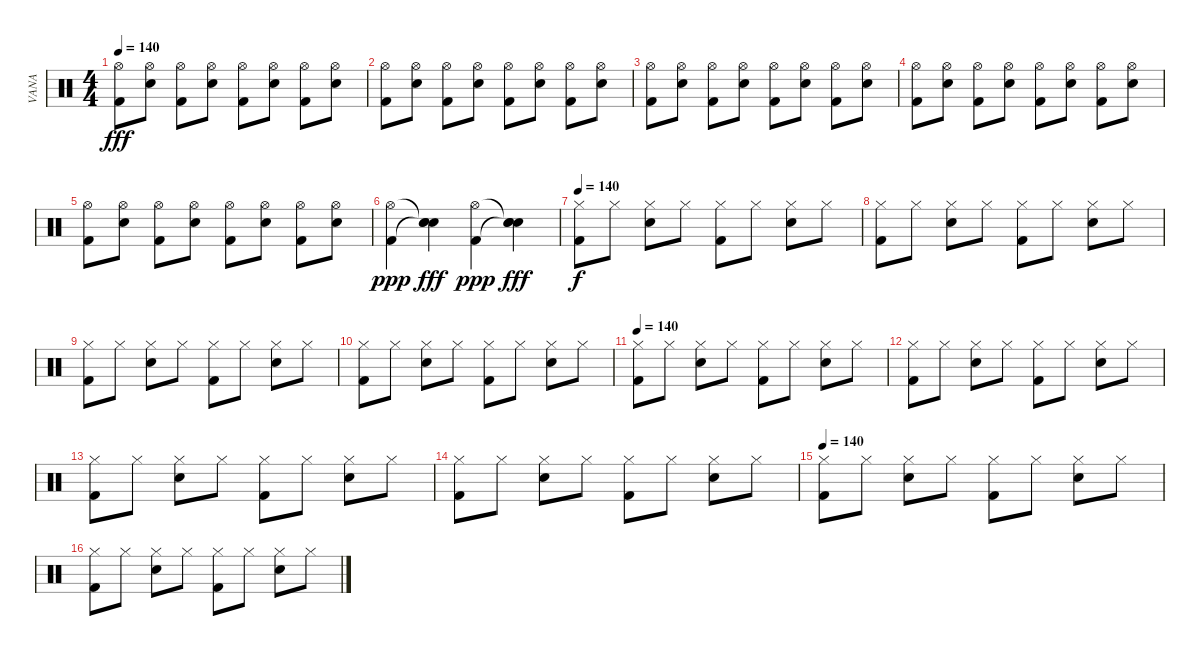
\track ("VANA" "VANA") {instrument percussion}
\staff {score}
\articulation defaults
\ts (4 4)
\tempo 140
\clef neutral
\ks c
("Hi-Hat (open)" "Kick (hit) 2").8{dy fff} ("Hi-Hat (open)" "Electric Snare (hit)").8 ("Hi-Hat (open)" "Kick (hit) 2").8 ("Hi-Hat (open)" "Electric Snare (hit)").8 ("Hi-Hat (open)" "Kick (hit) 2").8 ("Hi-Hat (open)" "Electric Snare (hit)").8 ("Hi-Hat (open)" "Kick (hit) 2").8 ("Hi-Hat (open)" "Electric Snare (hit)").8 |
("Hi-Hat (open)" "Kick (hit) 2").8 ("Hi-Hat (open)" "Electric Snare (hit)").8 ("Hi-Hat (open)" "Kick (hit) 2").8 ("Hi-Hat (open)" "Electric Snare (hit)").8 ("Hi-Hat (open)" "Kick (hit) 2").8 ("Hi-Hat (open)" "Electric Snare (hit)").8 ("Hi-Hat (open)" "Kick (hit) 2").8 ("Hi-Hat (open)" "Electric Snare (hit)").8 |
("Hi-Hat (open)" "Kick (hit) 2").8 ("Hi-Hat (open)" "Electric Snare (hit)").8 ("Hi-Hat (open)" "Kick (hit) 2").8 ("Hi-Hat (open)" "Electric Snare (hit)").8 ("Hi-Hat (open)" "Kick (hit) 2").8 ("Hi-Hat (open)" "Electric Snare (hit)").8 ("Hi-Hat (open)" "Kick (hit) 2").8 ("Hi-Hat (open)" "Electric Snare (hit)").8 |
("Hi-Hat (open)" "Kick (hit) 2").8 ("Hi-Hat (open)" "Electric Snare (hit)").8 ("Hi-Hat (open)" "Kick (hit) 2").8 ("Hi-Hat (open)" "Electric Snare (hit)").8 ("Hi-Hat (open)" "Kick (hit) 2").8 ("Hi-Hat (open)" "Electric Snare (hit)").8 ("Hi-Hat (open)" "Kick (hit) 2").8 ("Hi-Hat (open)" "Electric Snare (hit)").8 |
("Hi-Hat (open)" "Kick (hit) 2").8 ("Hi-Hat (open)" "Electric Snare (hit)").8 ("Hi-Hat (open)" "Kick (hit) 2").8 ("Hi-Hat (open)" "Electric Snare (hit)").8 ("Hi-Hat (open)" "Kick (hit) 2").8 ("Hi-Hat (open)" "Electric Snare (hit)").8 ("Hi-Hat (open)" "Kick (hit) 2").8 ("Hi-Hat (open)" "Electric Snare (hit)").8 |
("Hi-Hat (open)" "Kick (hit) 2").4{dy ppp} ("Electric Snare (hit)"{t} "Electric Snare (hit)"{t} "Electric Snare (hit)").4{dy fff} ("Hi-Hat (open)" "Kick (hit) 2").4{dy ppp} ("Electric Snare (hit)"{t} "Electric Snare (hit)"{t} "Electric Snare (hit)").4{dy fff} |
\tempo 140
("Hi-Hat (closed)" "Kick (hit) 2").8{dy f} "Hi-Hat (closed)".8 ("Hi-Hat (closed)" "Electric Snare (hit)").8 "Hi-Hat (closed)".8 ("Hi-Hat (closed)" "Kick (hit) 2").8 "Hi-Hat (closed)".8 ("Hi-Hat (closed)" "Electric Snare (hit)").8 "Hi-Hat (closed)".8 |
("Hi-Hat (closed)" "Kick (hit) 2").8 "Hi-Hat (closed)".8 ("Hi-Hat (closed)" "Electric Snare (hit)").8 "Hi-Hat (closed)".8 ("Hi-Hat (closed)" "Kick (hit) 2").8 "Hi-Hat (closed)".8 ("Hi-Hat (closed)" "Electric Snare (hit)").8 "Hi-Hat (closed)".8 |
("Hi-Hat (closed)" "Kick (hit) 2").8 "Hi-Hat (closed)".8 ("Hi-Hat (closed)" "Electric Snare (hit)").8 "Hi-Hat (closed)".8 ("Hi-Hat (closed)" "Kick (hit) 2").8 "Hi-Hat (closed)".8 ("Hi-Hat (closed)" "Electric Snare (hit)").8 "Hi-Hat (closed)".8 |
("Hi-Hat (closed)" "Kick (hit) 2").8 "Hi-Hat (closed)".8 ("Hi-Hat (closed)" "Electric Snare (hit)").8 "Hi-Hat (closed)".8 ("Hi-Hat (closed)" "Kick (hit) 2").8 "Hi-Hat (closed)".8 ("Hi-Hat (closed)" "Electric Snare (hit)").8 "Hi-Hat (closed)".8 |
\tempo 140
("Hi-Hat (closed)" "Kick (hit) 2").8 "Hi-Hat (closed)".8 ("Hi-Hat (closed)" "Electric Snare (hit)").8 "Hi-Hat (closed)".8 ("Hi-Hat (closed)" "Kick (hit) 2").8 "Hi-Hat (closed)".8 ("Hi-Hat (closed)" "Electric Snare (hit)").8 "Hi-Hat (closed)".8 |
("Hi-Hat (closed)" "Kick (hit) 2").8 "Hi-Hat (closed)".8 ("Hi-Hat (closed)" "Electric Snare (hit)").8 "Hi-Hat (closed)".8 ("Hi-Hat (closed)" "Kick (hit) 2").8 "Hi-Hat (closed)".8 ("Hi-Hat (closed)" "Electric Snare (hit)").8 "Hi-Hat (closed)".8 |
("Hi-Hat (closed)" "Kick (hit) 2").8 "Hi-Hat (closed)".8 ("Hi-Hat (closed)" "Electric Snare (hit)").8 "Hi-Hat (closed)".8 ("Hi-Hat (closed)" "Kick (hit) 2").8 "Hi-Hat (closed)".8 ("Hi-Hat (closed)" "Electric Snare (hit)").8 "Hi-Hat (closed)".8 |
("Hi-Hat (closed)" "Kick (hit) 2").8 "Hi-Hat (closed)".8 ("Hi-Hat (closed)" "Electric Snare (hit)").8 "Hi-Hat (closed)".8 ("Hi-Hat (closed)" "Kick (hit) 2").8 "Hi-Hat (closed)".8 ("Hi-Hat (closed)" "Electric Snare (hit)").8 "Hi-Hat (closed)".8 |
\tempo 140
("Hi-Hat (closed)" "Kick (hit) 2").8 "Hi-Hat (closed)".8 ("Hi-Hat (closed)" "Electric Snare (hit)").8 "Hi-Hat (closed)".8 ("Hi-Hat (closed)" "Kick (hit) 2").8 "Hi-Hat (closed)".8 ("Hi-Hat (closed)" "Electric Snare (hit)").8 "Hi-Hat (closed)".8 |
("Hi-Hat (closed)" "Kick (hit) 2").8 "Hi-Hat (closed)".8 ("Hi-Hat (closed)" "Electric Snare (hit)").8 "Hi-Hat (closed)".8 ("Hi-Hat (closed)" "Kick (hit) 2").8 "Hi-Hat (closed)".8 ("Hi-Hat (closed)" "Electric Snare (hit)").8 "Hi-Hat (closed)".8
